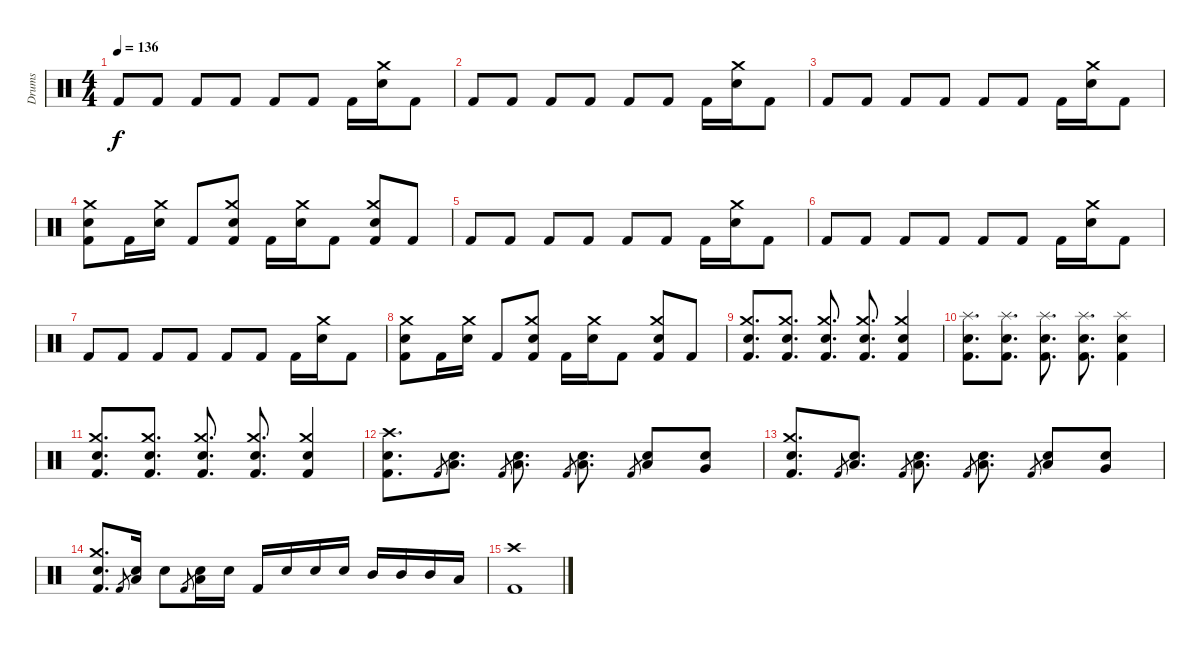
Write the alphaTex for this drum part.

\track ("Drums" "Drums") {instrument percussion}
\staff {score}
\articulation defaults
\ts (4 4)
\tempo 136
\clef neutral
\ks c "Kick (hit) 2".8{dy f} "Kick (hit) 2".8 "Kick (hit) 2".8 "Kick (hit) 2".8 "Kick (hit) 2".8 "Kick (hit) 2".8 "Kick (hit) 2".16
("Crash medium (hit)" "Electric Snare (hit)").16 "Kick (hit) 2".8 |
"Kick (hit) 2".8 "Kick (hit) 2".8 "Kick (hit) 2".8 "Kick (hit) 2".8 "Kick (hit) 2".8 "Kick (hit) 2".8 "Kick (hit) 2".16 ("Crash medium (hit)" "Electric Snare (hit)").16 "Kick (hit) 2".8 |
"Kick (hit) 2".8 "Kick (hit) 2".8 "Kick (hit) 2".8 "Kick (hit) 2".8 "Kick (hit) 2".8 "Kick (hit) 2".8 "Kick (hit) 2".16 ("Crash medium (hit)" "Electric Snare (hit)").16 "Kick (hit) 2".8 |
("Crash medium (hit)" "Electric Snare (hit)" "Kick (hit) 2").8 "Kick (hit) 2".16 ("Crash medium (hit)" "Electric Snare (hit)").16 "Kick (hit) 2".8 ("Crash medium (hit)" "Electric Snare (hit)" "Kick (hit) 2").8 "Kick (hit) 2".16 ("Crash medium (hit)" "Electric Snare (hit)").16 "Kick (hit) 2".8 ("Crash medium (hit)" "Electric Snare (hit)" "Kick (hit) 2").8 "Kick (hit) 2".8 |
"Kick (hit) 2".8 "Kick (hit) 2".8 "Kick (hit) 2".8 "Kick (hit) 2".8 "Kick (hit) 2".8 "Kick (hit) 2".8 "Kick (hit) 2".16 ("Crash medium (hit)" "Electric Snare (hit)").16 "Kick (hit) 2".8 |
"Kick (hit) 2".8 "Kick (hit) 2".8 "Kick (hit) 2".8 "Kick (hit) 2".8 "Kick (hit) 2".8 "Kick (hit) 2".8 "Kick (hit) 2".16 ("Crash medium (hit)" "Electric Snare (hit)").16 "Kick (hit) 2".8 |
"Kick (hit) 2".8 "Kick (hit) 2".8 "Kick (hit) 2".8 "Kick (hit) 2".8 "Kick (hit) 2".8 "Kick (hit) 2".8 "Kick (hit) 2".16 ("Crash medium (hit)" "Electric Snare (hit)").16 "Kick (hit) 2".8 |
("Crash medium (hit)" "Electric Snare (hit)" "Kick (hit) 2").8 "Kick (hit) 2".16 ("Crash medium (hit)" "Electric Snare (hit)").16 "Kick (hit) 2".8 ("Crash medium (hit)" "Electric Snare (hit)" "Kick (hit) 2").8 "Kick (hit) 2".16 ("Crash medium (hit)" "Electric Snare (hit)").16 "Kick (hit) 2".8 ("Crash medium (hit)" "Electric Snare (hit)" "Kick (hit) 2").8 "Kick (hit) 2".8 |
("Crash medium (hit)" "Electric Snare (hit)" "Kick (hit) 2").8{d} ("Crash medium (hit)" "Electric Snare (hit)" "Kick (hit) 2").8{d} ("Crash medium (hit)" "Electric Snare (hit)" "Kick (hit) 2").8{d} ("Crash medium (hit)" "Electric Snare (hit)" "Kick (hit) 2").8{d} ("Crash medium (hit)" "Electric Snare (hit)" "Kick (hit) 2").4 |
("Splash (hit)" "Electric Snare (hit)" "Kick (hit) 2").8{d} ("Splash (hit)" "Electric Snare (hit)" "Kick (hit) 2").8{d} ("Splash (hit)" "Electric Snare (hit)" "Kick (hit) 2").8{d} ("Splash (hit)" "Electric Snare (hit)" "Kick (hit) 2").8{d} ("Splash (hit)" "Electric Snare (hit)" "Kick (hit) 2").4 |
("Crash medium (hit)" "Electric Snare (hit)" "Kick (hit) 2").8{d} ("Crash medium (hit)" "Electric Snare (hit)" "Kick (hit) 2").8{d} ("Crash medium (hit)" "Electric Snare (hit)" "Kick (hit) 2").8{d} ("Crash medium (hit)" "Electric Snare (hit)" "Kick (hit) 2").8{d} ("Crash medium (hit)" "Electric Snare (hit)" "Kick (hit) 2").4 |
("Crash high (hit)" "Electric Snare (hit)" "Kick (hit) 2").8{d} "Kick (hit) 2".8{gr} ("Electric Snare (hit)" "Low Tom (hit)").8{d} "Kick (hit) 2".8{gr} ("Electric Snare (hit)" "Low Tom (hit)").8{d} "Kick (hit) 2".8{gr} ("Electric Snare (hit)" "Low Tom (hit)").8{d} "Kick (hit) 2".8{gr} ("Electric Snare (hit)" "Low Tom (hit)").8 ("Electric Snare (hit)" "Very Low Tom (hit)").8 |
("Crash medium (hit)" "Electric Snare (hit)" "Kick (hit) 2").8{d} "Kick (hit) 2".8{gr} ("Electric Snare (hit)" "Low Tom (hit)").8{d} "Kick (hit) 2".8{gr} ("Electric Snare (hit)" "Low Tom (hit)").8{d} "Kick (hit) 2".8{gr} ("Electric Snare (hit)" "Low Tom (hit)").8{d} "Kick (hit) 2".8{gr} ("Electric Snare (hit)" "Low Tom (hit)").8 ("Electric Snare (hit)" "Very Low Tom (hit)").8 |
("Crash medium (hit)" "Electric Snare (hit)" "Kick (hit) 2").8{d} "Kick (hit) 2".8{gr} ("Electric Snare (hit)" "Low Tom (hit)").16 "Electric Snare (hit)".8 "Kick (hit) 2".8{gr} ("Electric Snare (hit)" "Low Tom (hit)").16 "Electric Snare (hit)".16 "Kick (hit) 2".16 "Electric Snare (hit)".16 "Electric Snare (hit)".16 "Electric Snare (hit)".16 "Mid Tom (hit)".16 "Mid Tom (hit)".16 "Mid Tom (hit)".16 "Low Tom (hit)".16 |
("Crash high (hit)" "Kick (hit) 2").1
